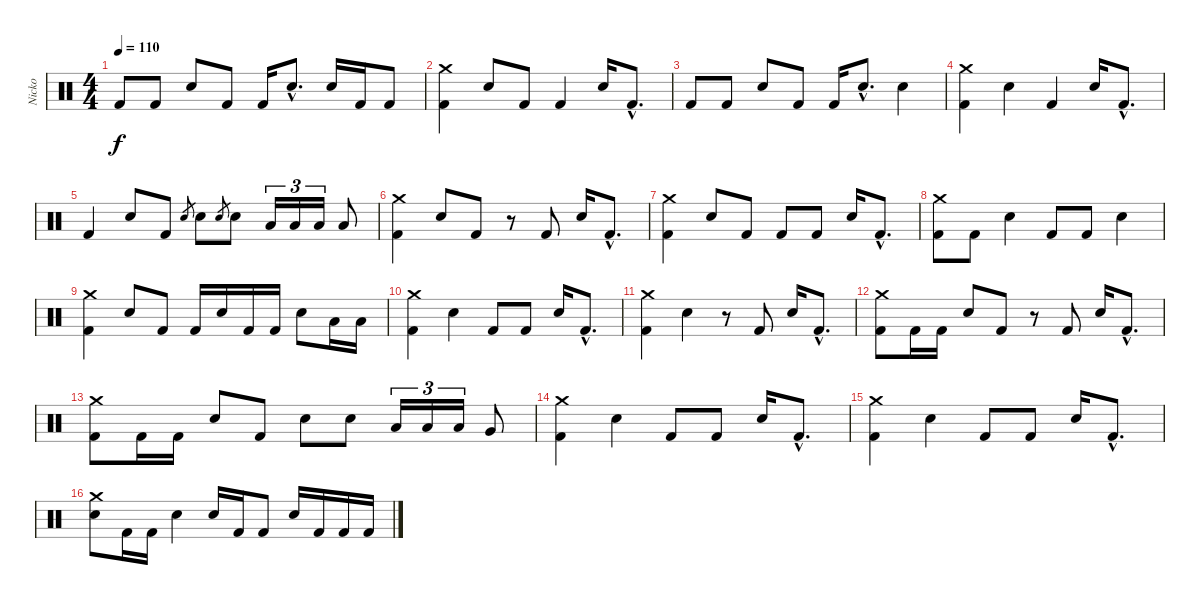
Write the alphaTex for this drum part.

\track ("Nicko" "Nicko") {instrument percussion}
\staff {score}
\articulation defaults
\ts (4 4)
\tempo 110
\clef neutral
\ks c "Kick (hit) 2".8{dy f} "Kick (hit) 2".8 "Electric Snare (hit)".8 "Kick (hit) 2".8 "Kick (hit) 2".16 "Electric Snare (hit)"{hac}.8{d} "Electric Snare (hit)".16 "Kick (hit) 2".16 "Kick (hit) 2".8
|
("Crash medium (hit)" "Kick (hit) 2").4 "Electric Snare (hit)".8 "Kick (hit) 2".8 "Kick (hit) 2".4 "Electric Snare (hit)".16 "Kick (hit) 2"{hac}.8{d} |
"Kick (hit) 2".8 "Kick (hit) 2".8 "Electric Snare (hit)".8 "Kick (hit) 2".8 "Kick (hit) 2".16 "Electric Snare (hit)"{hac}.8{d} "Electric Snare (hit)".4 |
("Crash medium (hit)" "Kick (hit) 2").4 "Electric Snare (hit)".4 "Kick (hit) 2".4 "Electric Snare (hit)".16 "Kick (hit) 2"{hac}.8{d} |
"Kick (hit) 2".4 "Electric Snare (hit)".8 "Kick (hit) 2".8 "Electric Snare (hit)".8{gr} "Electric Snare (hit)".8 "Electric Snare (hit)".8{gr} "Electric Snare (hit)".8 "Low Tom (hit)".16{tu (3 2)} "Low Tom (hit)".16{tu (3 2)} "Low Tom (hit)".16{tu (3 2)} "Low Tom (hit)".8 |
("Crash medium (hit)" "Kick (hit) 2").4 "Electric Snare (hit)".8 "Kick (hit) 2".8 r.8 "Kick (hit) 2".8 "Electric Snare (hit)".16 "Kick (hit) 2"{hac}.8{d} |
("Crash medium (hit)" "Kick (hit) 2").4 "Electric Snare (hit)".8 "Kick (hit) 2".8 "Kick (hit) 2".8 "Kick (hit) 2".8 "Electric Snare (hit)".16 "Kick (hit) 2"{hac}.8{d} |
("Crash medium (hit)" "Kick (hit) 2").8 "Kick (hit) 2".8 "Electric Snare (hit)".4 "Kick (hit) 2".8 "Kick (hit) 2".8 "Electric Snare (hit)".4 |
("Crash medium (hit)" "Kick (hit) 2").4 "Electric Snare (hit)".8 "Kick (hit) 2".8 "Kick (hit) 2".16 "Electric Snare (hit)".16 "Kick (hit) 2".16 "Kick (hit) 2".16 "Electric Snare (hit)".8 "Low Tom (hit)".16 "Low Tom (hit)".16 |
("Crash medium (hit)" "Kick (hit) 2").4 "Electric Snare (hit)".4 "Kick (hit) 2".8 "Kick (hit) 2".8 "Electric Snare (hit)".16 "Kick (hit) 2"{hac}.8{d} |
("Crash medium (hit)" "Kick (hit) 2").4 "Electric Snare (hit)".4 r.8 "Kick (hit) 2".8 "Electric Snare (hit)".16 "Kick (hit) 2"{hac}.8{d} |
("Crash medium (hit)" "Kick (hit) 2").8 "Kick (hit) 2".16 "Kick (hit) 2".16 "Electric Snare (hit)".8 "Kick (hit) 2".8 r.8 "Kick (hit) 2".8 "Electric Snare (hit)".16 "Kick (hit) 2"{hac}.8{d} |
("Crash medium (hit)" "Kick (hit) 2").8 "Kick (hit) 2".16 "Kick (hit) 2".16 "Electric Snare (hit)".8 "Kick (hit) 2".8 "Electric Snare (hit)".8 "Electric Snare (hit)".8 "Low Tom (hit)".16{tu (3 2)} "Low Tom (hit)".16{tu (3 2)} "Low Tom (hit)".16{tu (3 2)} "Very Low Tom (hit)".8 |
("Crash medium (hit)" "Kick (hit) 2").4 "Electric Snare (hit)".4 "Kick (hit) 2".8 "Kick (hit) 2".8 "Electric Snare (hit)".16 "Kick (hit) 2"{hac}.8{d} |
("Crash medium (hit)" "Kick (hit) 2").4 "Electric Snare (hit)".4 "Kick (hit) 2".8 "Kick (hit) 2".8 "Electric Snare (hit)".16 "Kick (hit) 2"{hac}.8{d} |
("Crash medium (hit)" "Electric Snare (hit)").8 "Kick (hit) 2".16 "Kick (hit) 2".16 "Electric Snare (hit)".4 "Electric Snare (hit)".16 "Kick (hit) 2".16 "Kick (hit) 2".8 "Electric Snare (hit)".16 "Kick (hit) 2".16 "Kick (hit) 2".16 "Kick (hit) 2".16
